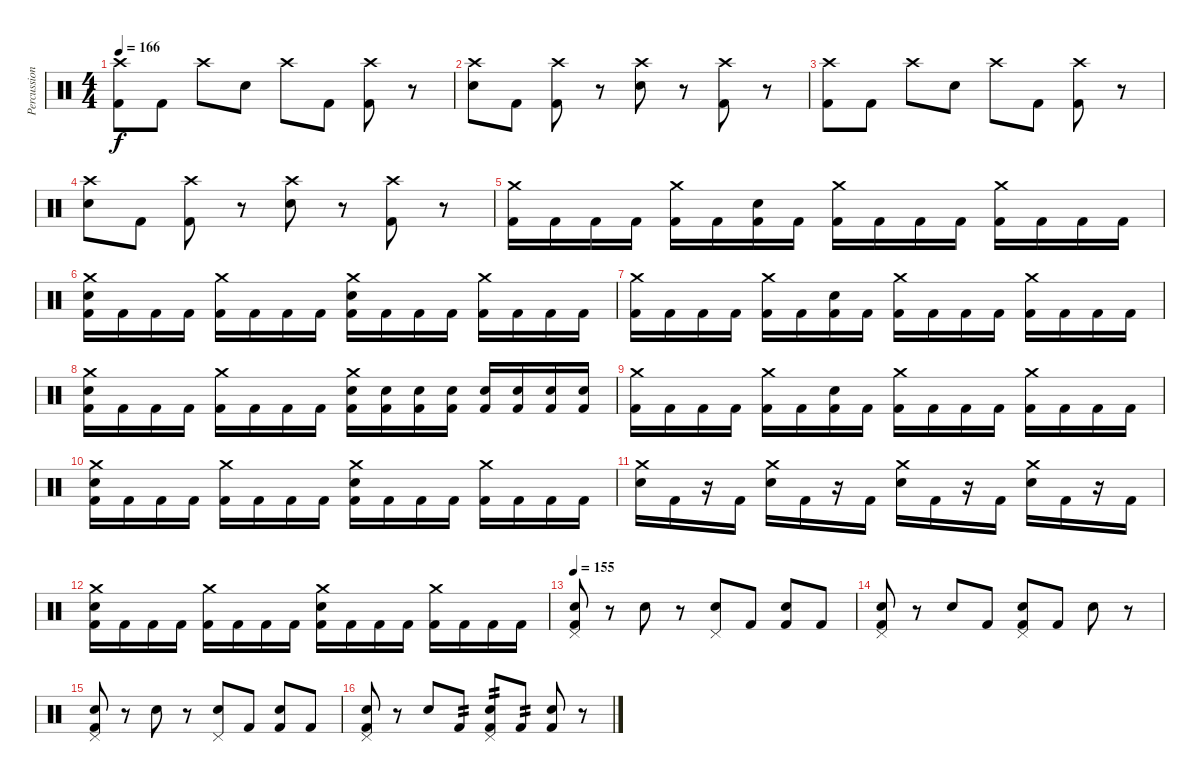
\track ("Percussion" "Percussion") {instrument percussion}
\staff {score}
\articulation defaults
\ts (4 4)
\tempo 166
\clef neutral
\ks c
("Crash high (hit)" "Kick (hit) 2").8{dy f} "Kick (hit) 2".8 "Crash high (hit)".8 "Snare (hit) 2".8 "Crash high (hit)".8 "Kick (hit) 2".8 ("Crash high (hit)" "Kick (hit) 2").8 r.8 |
("Crash high (hit)" "Snare (hit) 2").8 "Kick (hit) 2".8 ("Crash high (hit)" "Kick (hit) 2").8 r.8 ("Crash high (hit)" "Snare (hit) 2").8 r.8 ("Crash high (hit)" "Kick (hit) 2").8 r.8 |
("Crash high (hit)" "Kick (hit) 2").8 "Kick (hit) 2".8 "Crash high (hit)".8 "Snare (hit) 2".8 "Crash high (hit)".8 "Kick (hit) 2".8 ("Crash high (hit)" "Kick (hit) 2").8 r.8 |
("Crash high (hit)" "Snare (hit) 2").8 "Kick (hit) 2".8 ("Crash high (hit)" "Kick (hit) 2").8 r.8 ("Crash high (hit)" "Snare (hit) 2").8 r.8 ("Crash high (hit)" "Kick (hit) 2").8 r.8 |
("Crash medium (hit)" "Kick (hit) 2").16 "Kick (hit) 2".16 "Kick (hit) 2".16 "Kick (hit) 2".16 ("Crash medium (hit)" "Kick (hit) 2").16 "Kick (hit) 2".16 ("Snare (hit) 2" "Kick (hit) 2").16 "Kick (hit) 2".16 ("Crash medium (hit)" "Kick (hit) 2").16 "Kick (hit) 2".16 "Kick (hit) 2".16 "Kick (hit) 2".16 ("Crash medium (hit)" "Kick (hit) 2").16 "Kick (hit) 2".16 "Kick (hit) 2".16 "Kick (hit) 2".16 |
("Crash medium (hit)" "Snare (hit) 2" "Kick (hit) 2").16 "Kick (hit) 2".16 "Kick (hit) 2".16 "Kick (hit) 2".16 ("Crash medium (hit)" "Kick (hit) 2").16 "Kick (hit) 2".16 "Kick (hit) 2".16 "Kick (hit) 2".16 ("Crash medium (hit)" "Snare (hit) 2" "Kick (hit) 2").16 "Kick (hit) 2".16 "Kick (hit) 2".16 "Kick (hit) 2".16 ("Crash medium (hit)" "Kick (hit) 2").16 "Kick (hit) 2".16 "Kick (hit) 2".16 "Kick (hit) 2".16 |
("Crash medium (hit)" "Kick (hit) 2").16 "Kick (hit) 2".16 "Kick (hit) 2".16 "Kick (hit) 2".16 ("Crash medium (hit)" "Kick (hit) 2").16 "Kick (hit) 2".16 ("Snare (hit) 2" "Kick (hit) 2").16 "Kick (hit) 2".16 ("Crash medium (hit)" "Kick (hit) 2").16 "Kick (hit) 2".16 "Kick (hit) 2".16 "Kick (hit) 2".16 ("Crash medium (hit)" "Kick (hit) 2").16 "Kick (hit) 2".16 "Kick (hit) 2".16 "Kick (hit) 2".16 |
("Crash medium (hit)" "Snare (hit) 2" "Kick (hit) 2").16 "Kick (hit) 2".16 "Kick (hit) 2".16 "Kick (hit) 2".16 ("Crash medium (hit)" "Kick (hit) 2").16 "Kick (hit) 2".16 "Kick (hit) 2".16 "Kick (hit) 2".16 ("Crash medium (hit)" "Snare (hit) 2" "Kick (hit) 2").16 ("Snare (hit) 2" "Kick (hit) 2").16 ("Snare (hit) 2" "Kick (hit) 2").16 ("Snare (hit) 2" "Kick (hit) 2").16 ("Snare (hit) 2" "Kick (hit) 2").16 ("Snare (hit) 2" "Kick (hit) 2").16 ("Snare (hit) 2" "Kick (hit) 2").16 ("Snare (hit) 2" "Kick (hit) 2").16 |
("Crash medium (hit)" "Kick (hit) 2").16 "Kick (hit) 2".16 "Kick (hit) 2".16 "Kick (hit) 2".16 ("Crash medium (hit)" "Kick (hit) 2").16 "Kick (hit) 2".16 ("Snare (hit) 2" "Kick (hit) 2").16 "Kick (hit) 2".16 ("Crash medium (hit)" "Kick (hit) 2").16 "Kick (hit) 2".16 "Kick (hit) 2".16 "Kick (hit) 2".16 ("Crash medium (hit)" "Kick (hit) 2").16 "Kick (hit) 2".16 "Kick (hit) 2".16 "Kick (hit) 2".16 |
("Crash medium (hit)" "Snare (hit) 2" "Kick (hit) 2").16 "Kick (hit) 2".16 "Kick (hit) 2".16 "Kick (hit) 2".16 ("Crash medium (hit)" "Kick (hit) 2").16 "Kick (hit) 2".16 "Kick (hit) 2".16 "Kick (hit) 2".16 ("Crash medium (hit)" "Snare (hit) 2" "Kick (hit) 2").16 "Kick (hit) 2".16 "Kick (hit) 2".16 "Kick (hit) 2".16 ("Crash medium (hit)" "Kick (hit) 2").16 "Kick (hit) 2".16 "Kick (hit) 2".16 "Kick (hit) 2".16 |
("Crash medium (hit)" "Snare (hit) 2").16 "Kick (hit) 2".16 r.16 "Kick (hit) 2".16 ("Crash medium (hit)" "Snare (hit) 2").16 "Kick (hit) 2".16 r.16 "Kick (hit) 2".16 ("Crash medium (hit)" "Snare (hit) 2").16 "Kick (hit) 2".16 r.16 "Kick (hit) 2".16 ("Crash medium (hit)" "Snare (hit) 2").16 "Kick (hit) 2".16 r.16 "Kick (hit) 2".16 |
("Crash medium (hit)" "Snare (hit) 2" "Kick (hit) 2").16 "Kick (hit) 2".16 "Kick (hit) 2".16 "Kick (hit) 2".16 ("Crash medium (hit)" "Kick (hit) 2").16 "Kick (hit) 2".16 "Kick (hit) 2".16 "Kick (hit) 2".16 ("Crash medium (hit)" "Snare (hit) 2" "Kick (hit) 2").16 "Kick (hit) 2".16 "Kick (hit) 2".16 "Kick (hit) 2".16 ("Crash medium (hit)" "Kick (hit) 2").16 "Kick (hit) 2".16 "Kick (hit) 2".16 "Kick (hit) 2".16 |
\tempo 155
("Pedal Hi-Hat (hit)" "Snare (hit) 2" "Kick (hit) 2").8 r.8 "Snare (hit) 2".8 r.8 ("Pedal Hi-Hat (hit)" "Snare (hit) 2").8 "Kick (hit) 2".8 ("Snare (hit) 2" "Kick (hit) 2").8 "Kick (hit) 2".8 |
("Pedal Hi-Hat (hit)" "Snare (hit) 2" "Kick (hit) 2").8 r.8 "Snare (hit) 2".8 "Kick (hit) 2".8 ("Pedal Hi-Hat (hit)" "Snare (hit) 2" "Kick (hit) 2").8 "Kick (hit) 2".8 "Snare (hit) 2".8 r.8 |
("Pedal Hi-Hat (hit)" "Snare (hit) 2" "Kick (hit) 2").8 r.8 "Snare (hit) 2".8 r.8 ("Pedal Hi-Hat (hit)" "Snare (hit) 2").8 "Kick (hit) 2".8 ("Snare (hit) 2" "Kick (hit) 2").8 "Kick (hit) 2".8 |
("Pedal Hi-Hat (hit)" "Snare (hit) 2" "Kick (hit) 2").8 r.8 "Snare (hit) 2".8 "Kick (hit) 2".8{tp 2} ("Pedal Hi-Hat (hit)" "Snare (hit) 2" "Kick (hit) 2").8{tp 2} "Kick (hit) 2".8{tp 2} ("Snare (hit) 2" "Kick (hit) 2").8 r.8
